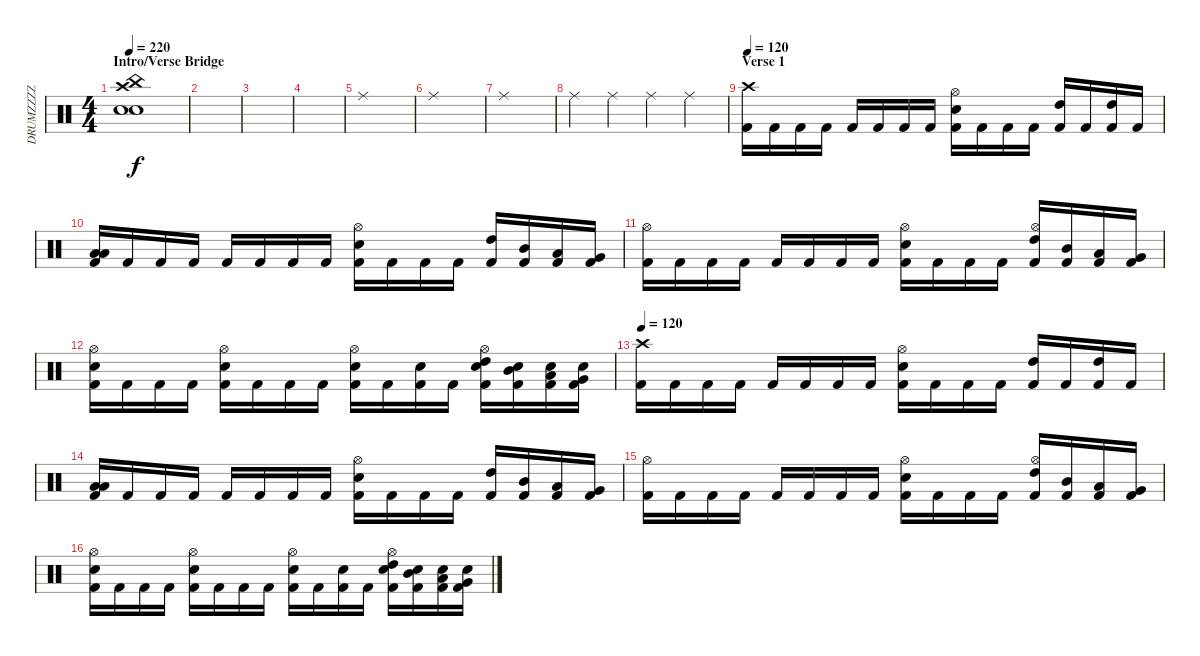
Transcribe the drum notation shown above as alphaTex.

\track ("DRUMZZZZ" "DRUMZZZZ") {instrument percussion}
\staff {score}
\articulation defaults
\ts (4 4)
\section ("" "Intro/Verse Bridge")
\tempo 220
\clef neutral
\ks c
("Crash high (hit)" "China (hit)" "Snare (hit) 2" "Electric Snare (hit)").1{dy f} |
|
|
|
"Ride (middle)".1 |
"Ride (middle)".1 |
"Ride (middle)".1 |
"Ride (middle)".4 "Ride (middle)".4 "Ride (middle)".4 "Ride (middle)".4 |
\section ("" "Verse 1")
\tempo 120
("Crash high (hit)" "Kick (hit) 2").16 "Kick (hit) 2".16 "Kick (hit) 2".16 "Kick (hit) 2".16 "Kick (hit) 2".16 "Kick (hit) 2".16 "Kick (hit) 2".16 "Kick (hit) 2".16 ("Hi-Hat (open)" "Kick (hit) 2" "Snare (hit) 2").16 "Kick (hit) 2".16 "Kick (hit) 2".16 "Kick (hit) 2".16 ("Kick (hit) 2" "High Tom (hit)").16 "Kick (hit) 2".16 ("Kick (hit) 2" "High Tom (hit)").16 "Kick (hit) 2".16 |
("Kick (hit) 2" "Low Tom (hit)" "Low Tom (hit)").16 "Kick (hit) 2".16 "Kick (hit) 2".16 "Kick (hit) 2".16 "Kick (hit) 2".16 "Kick (hit) 2".16 "Kick (hit) 2".16 "Kick (hit) 2".16 ("Hi-Hat (open)" "Kick (hit) 2" "Snare (hit) 2").16 "Kick (hit) 2".16 "Kick (hit) 2".16 "Kick (hit) 2".16 ("Kick (hit) 2" "High Tom (hit)").16 ("Kick (hit) 2" "Mid Tom (hit)").16 ("Kick (hit) 2" "Low Tom (hit)").16 ("Kick (hit) 2" "Very Low Tom (hit)").16 |
("Hi-Hat (open)" "Kick (hit) 2").16 "Kick (hit) 2".16 "Kick (hit) 2".16 "Kick (hit) 2".16 "Kick (hit) 2".16 "Kick (hit) 2".16 "Kick (hit) 2".16 "Kick (hit) 2".16 ("Hi-Hat (open)" "Kick (hit) 2" "Snare (hit) 2").16 "Kick (hit) 2".16 "Kick (hit) 2".16 "Kick (hit) 2".16 ("Hi-Hat (open)" "Kick (hit) 2" "High Tom (hit)").16 ("Kick (hit) 2" "Mid Tom (hit)").16 ("Kick (hit) 2" "Low Tom (hit)").16 ("Kick (hit) 2" "Very Low Tom (hit)").16 |
("Hi-Hat (open)" "Kick (hit) 2" "Electric Snare (hit)").16 "Kick (hit) 2".16 "Kick (hit) 2".16 "Kick (hit) 2".16 ("Hi-Hat (open)" "Kick (hit) 2" "Electric Snare (hit)").16 "Kick (hit) 2".16 "Kick (hit) 2".16 "Kick (hit) 2".16 ("Hi-Hat (open)" "Kick (hit) 2" "Electric Snare (hit)").16 "Kick (hit) 2".16 ("Kick (hit) 2" "Electric Snare (hit)").16 "Kick (hit) 2".16 ("Hi-Hat (open)" "Kick (hit) 2" "High Tom (hit)" "Electric Snare (hit)").16 ("Kick (hit) 2" "Mid Tom (hit)" "Electric Snare (hit)").16 ("Kick (hit) 2" "Low Tom (hit)" "Electric Snare (hit)").16 ("Kick (hit) 2" "Very Low Tom (hit)" "Electric Snare (hit)").16 |
\tempo 120
("Crash high (hit)" "Kick (hit) 2").16 "Kick (hit) 2".16 "Kick (hit) 2".16 "Kick (hit) 2".16 "Kick (hit) 2".16 "Kick (hit) 2".16 "Kick (hit) 2".16 "Kick (hit) 2".16 ("Hi-Hat (open)" "Kick (hit) 2" "Snare (hit) 2").16 "Kick (hit) 2".16 "Kick (hit) 2".16 "Kick (hit) 2".16 ("Kick (hit) 2" "High Tom (hit)").16 "Kick (hit) 2".16 ("Kick (hit) 2" "High Tom (hit)").16 "Kick (hit) 2".16 |
("Kick (hit) 2" "Low Tom (hit)" "Low Tom (hit)").16 "Kick (hit) 2".16 "Kick (hit) 2".16 "Kick (hit) 2".16 "Kick (hit) 2".16 "Kick (hit) 2".16 "Kick (hit) 2".16 "Kick (hit) 2".16 ("Hi-Hat (open)" "Kick (hit) 2" "Snare (hit) 2").16 "Kick (hit) 2".16 "Kick (hit) 2".16 "Kick (hit) 2".16 ("Kick (hit) 2" "High Tom (hit)").16 ("Kick (hit) 2" "Mid Tom (hit)").16 ("Kick (hit) 2" "Low Tom (hit)").16 ("Kick (hit) 2" "Very Low Tom (hit)").16 |
("Hi-Hat (open)" "Kick (hit) 2").16 "Kick (hit) 2".16 "Kick (hit) 2".16 "Kick (hit) 2".16 "Kick (hit) 2".16 "Kick (hit) 2".16 "Kick (hit) 2".16 "Kick (hit) 2".16 ("Hi-Hat (open)" "Kick (hit) 2" "Snare (hit) 2").16 "Kick (hit) 2".16 "Kick (hit) 2".16 "Kick (hit) 2".16 ("Hi-Hat (open)" "Kick (hit) 2" "High Tom (hit)").16 ("Kick (hit) 2" "Mid Tom (hit)").16 ("Kick (hit) 2" "Low Tom (hit)").16 ("Kick (hit) 2" "Very Low Tom (hit)").16 |
("Hi-Hat (open)" "Kick (hit) 2" "Electric Snare (hit)").16 "Kick (hit) 2".16 "Kick (hit) 2".16 "Kick (hit) 2".16 ("Hi-Hat (open)" "Kick (hit) 2" "Electric Snare (hit)").16 "Kick (hit) 2".16 "Kick (hit) 2".16 "Kick (hit) 2".16 ("Hi-Hat (open)" "Kick (hit) 2" "Electric Snare (hit)").16 "Kick (hit) 2".16 ("Kick (hit) 2" "Electric Snare (hit)").16 "Kick (hit) 2".16 ("Hi-Hat (open)" "Kick (hit) 2" "High Tom (hit)" "Electric Snare (hit)").16 ("Kick (hit) 2" "Mid Tom (hit)" "Electric Snare (hit)").16 ("Kick (hit) 2" "Low Tom (hit)" "Electric Snare (hit)").16 ("Kick (hit) 2" "Very Low Tom (hit)" "Electric Snare (hit)").16
